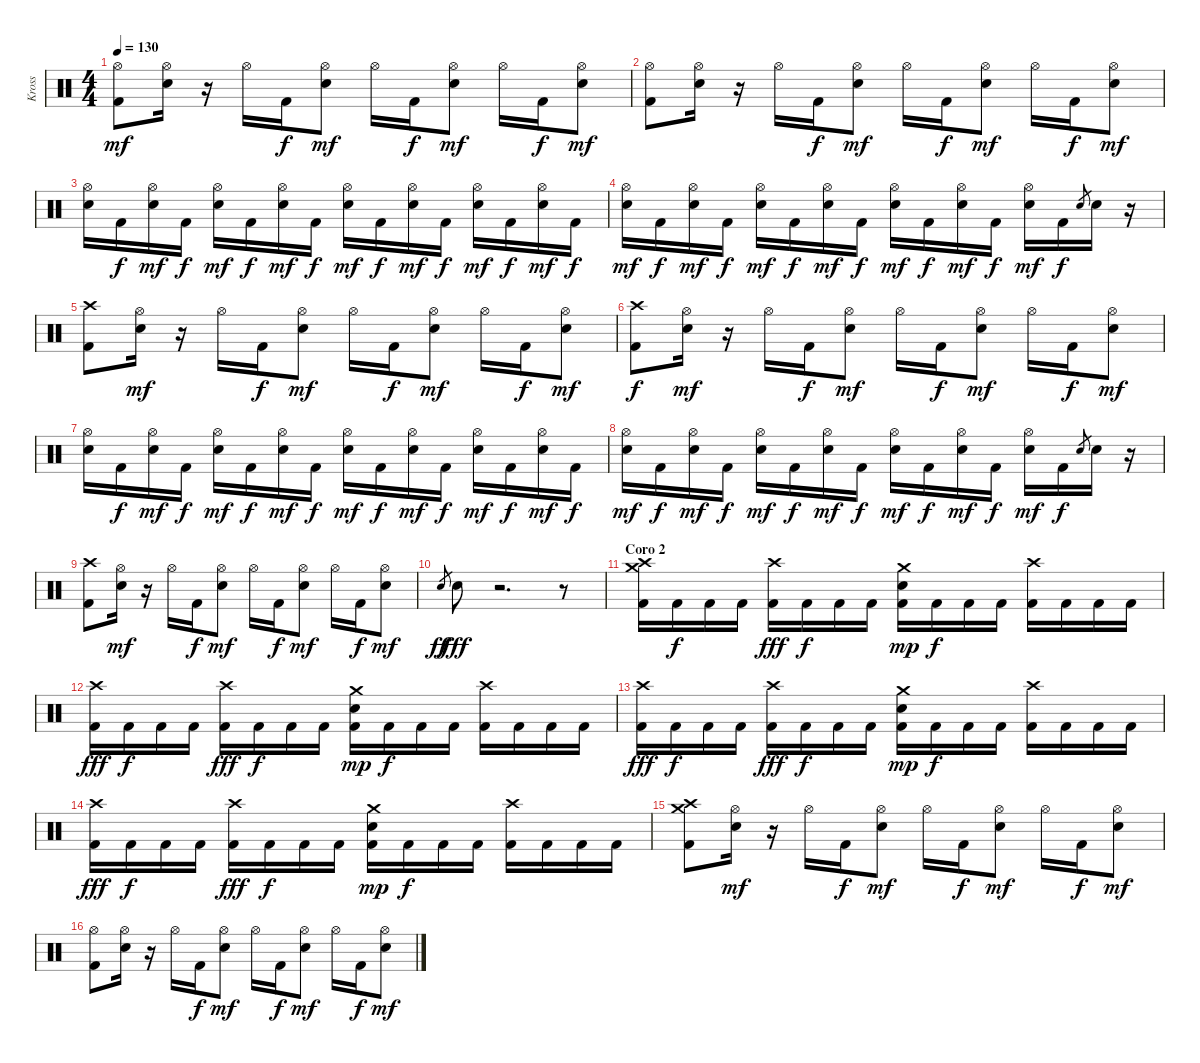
\track ("Kross" "Kross") {instrument percussion}
\staff {score}
\articulation defaults
\ts (4 4)
\tempo 130
\clef neutral
\ks c
("Hi-Hat (open)" "Kick (hit) 2").8{dy mf} ("Hi-Hat (open)" "Snare (hit) 2").16 r.16 "Hi-Hat (open)".16 "Kick (hit) 2".16{dy f} ("Hi-Hat (open)" "Snare (hit) 2").8{dy mf} "Hi-Hat (open)".16 "Kick (hit) 2".16{dy f} ("Hi-Hat (open)" "Snare (hit) 2").8{dy mf} "Hi-Hat (open)".16 "Kick (hit) 2".16{dy f} ("Hi-Hat (open)" "Snare (hit) 2").8{dy mf} |
("Hi-Hat (open)" "Kick (hit) 2").8 ("Hi-Hat (open)" "Snare (hit) 2").16 r.16 "Hi-Hat (open)".16 "Kick (hit) 2".16{dy f} ("Hi-Hat (open)" "Snare (hit) 2").8{dy mf} "Hi-Hat (open)".16 "Kick (hit) 2".16{dy f} ("Hi-Hat (open)" "Snare (hit) 2").8{dy mf} "Hi-Hat (open)".16 "Kick (hit) 2".16{dy f} ("Hi-Hat (open)" "Snare (hit) 2").8{dy mf} |
("Hi-Hat (open)" "Snare (hit) 2").16 "Kick (hit) 2".16{dy f} ("Hi-Hat (open)" "Snare (hit) 2").16{dy mf} "Kick (hit) 2".16{dy f} ("Hi-Hat (open)" "Snare (hit) 2").16{dy mf} "Kick (hit) 2".16{dy f} ("Hi-Hat (open)" "Snare (hit) 2").16{dy mf} "Kick (hit) 2".16{dy f} ("Hi-Hat (open)" "Snare (hit) 2").16{dy mf} "Kick (hit) 2".16{dy f} ("Hi-Hat (open)" "Snare (hit) 2").16{dy mf} "Kick (hit) 2".16{dy f} ("Hi-Hat (open)" "Snare (hit) 2").16{dy mf} "Kick (hit) 2".16{dy f} ("Hi-Hat (open)" "Snare (hit) 2").16{dy mf} "Kick (hit) 2".16{dy f} |
("Hi-Hat (open)" "Snare (hit) 2").16{dy mf} "Kick (hit) 2".16{dy f} ("Hi-Hat (open)" "Snare (hit) 2").16{dy mf} "Kick (hit) 2".16{dy f} ("Hi-Hat (open)" "Snare (hit) 2").16{dy mf} "Kick (hit) 2".16{dy f} ("Hi-Hat (open)" "Snare (hit) 2").16{dy mf} "Kick (hit) 2".16{dy f} ("Hi-Hat (open)" "Snare (hit) 2").16{dy mf} "Kick (hit) 2".16{dy f} ("Hi-Hat (open)" "Snare (hit) 2").16{dy mf} "Kick (hit) 2".16{dy f} ("Hi-Hat (open)" "Snare (hit) 2").16{dy mf} "Kick (hit) 2".16{dy f} "Snare (hit) 2".8{gr} "Snare (hit) 2".16 r.16 |
("Crash high (hit)" "Kick (hit) 2").8 ("Hi-Hat (open)" "Snare (hit) 2").16{dy mf} r.16 "Hi-Hat (open)".16 "Kick (hit) 2".16{dy f} ("Hi-Hat (open)" "Snare (hit) 2").8{dy mf} "Hi-Hat (open)".16 "Kick (hit) 2".16{dy f} ("Hi-Hat (open)" "Snare (hit) 2").8{dy mf} "Hi-Hat (open)".16 "Kick (hit) 2".16{dy f} ("Hi-Hat (open)" "Snare (hit) 2").8{dy mf} |
("Crash high (hit)" "Kick (hit) 2").8{dy f} ("Hi-Hat (open)" "Snare (hit) 2").16{dy mf} r.16 "Hi-Hat (open)".16 "Kick (hit) 2".16{dy f} ("Hi-Hat (open)" "Snare (hit) 2").8{dy mf} "Hi-Hat (open)".16 "Kick (hit) 2".16{dy f} ("Hi-Hat (open)" "Snare (hit) 2").8{dy mf} "Hi-Hat (open)".16 "Kick (hit) 2".16{dy f} ("Hi-Hat (open)" "Snare (hit) 2").8{dy mf} |
("Hi-Hat (open)" "Snare (hit) 2").16 "Kick (hit) 2".16{dy f} ("Hi-Hat (open)" "Snare (hit) 2").16{dy mf} "Kick (hit) 2".16{dy f} ("Hi-Hat (open)" "Snare (hit) 2").16{dy mf} "Kick (hit) 2".16{dy f} ("Hi-Hat (open)" "Snare (hit) 2").16{dy mf} "Kick (hit) 2".16{dy f} ("Hi-Hat (open)" "Snare (hit) 2").16{dy mf} "Kick (hit) 2".16{dy f} ("Hi-Hat (open)" "Snare (hit) 2").16{dy mf} "Kick (hit) 2".16{dy f} ("Hi-Hat (open)" "Snare (hit) 2").16{dy mf} "Kick (hit) 2".16{dy f} ("Hi-Hat (open)" "Snare (hit) 2").16{dy mf} "Kick (hit) 2".16{dy f} |
("Hi-Hat (open)" "Snare (hit) 2").16{dy mf} "Kick (hit) 2".16{dy f} ("Hi-Hat (open)" "Snare (hit) 2").16{dy mf} "Kick (hit) 2".16{dy f} ("Hi-Hat (open)" "Snare (hit) 2").16{dy mf} "Kick (hit) 2".16{dy f} ("Hi-Hat (open)" "Snare (hit) 2").16{dy mf} "Kick (hit) 2".16{dy f} ("Hi-Hat (open)" "Snare (hit) 2").16{dy mf} "Kick (hit) 2".16{dy f} ("Hi-Hat (open)" "Snare (hit) 2").16{dy mf} "Kick (hit) 2".16{dy f} ("Hi-Hat (open)" "Snare (hit) 2").16{dy mf} "Kick (hit) 2".16{dy f} "Snare (hit) 2".8{gr} "Snare (hit) 2".16 r.16 |
("Crash high (hit)" "Kick (hit) 2").8 ("Hi-Hat (open)" "Snare (hit) 2").16{dy mf} r.16 "Hi-Hat (open)".16 "Kick (hit) 2".16{dy f} ("Hi-Hat (open)" "Snare (hit) 2").8{dy mf} "Hi-Hat (open)".16 "Kick (hit) 2".16{dy f} ("Hi-Hat (open)" "Snare (hit) 2").8{dy mf} "Hi-Hat (open)".16 "Kick (hit) 2".16{dy f} ("Hi-Hat (open)" "Snare (hit) 2").8{dy mf} |
"Snare (hit) 2".8{gr dy ff} "Snare (hit) 2".8{dy fff} r.2{d} r.8 |
\section ("" "Coro 2")
("Crash high (hit)" "Crash medium (hit)" "Kick (hit) 2").16 "Kick (hit) 2".16{dy f} "Kick (hit) 2".16 "Kick (hit) 2".16 ("Crash high (hit)" "Kick (hit) 2").16{dy fff} "Kick (hit) 2".16{dy f} "Kick (hit) 2".16 "Kick (hit) 2".16 ("Crash medium (hit)" "Snare (hit) 2" "Kick (hit) 2").16{dy mp} "Kick (hit) 2".16{dy f} "Kick (hit) 2".16 "Kick (hit) 2".16 ("Crash high (hit)" "Kick (hit) 2").16 "Kick (hit) 2".16 "Kick (hit) 2".16 "Kick (hit) 2".16 |
("Crash high (hit)" "Kick (hit) 2").16{dy fff} "Kick (hit) 2".16{dy f} "Kick (hit) 2".16 "Kick (hit) 2".16 ("Crash high (hit)" "Kick (hit) 2").16{dy fff} "Kick (hit) 2".16{dy f} "Kick (hit) 2".16 "Kick (hit) 2".16 ("Crash medium (hit)" "Snare (hit) 2" "Kick (hit) 2").16{dy mp} "Kick (hit) 2".16{dy f} "Kick (hit) 2".16 "Kick (hit) 2".16 ("Crash high (hit)" "Kick (hit) 2").16 "Kick (hit) 2".16 "Kick (hit) 2".16 "Kick (hit) 2".16 |
("Crash high (hit)" "Kick (hit) 2").16{dy fff} "Kick (hit) 2".16{dy f} "Kick (hit) 2".16 "Kick (hit) 2".16 ("Crash high (hit)" "Kick (hit) 2").16{dy fff} "Kick (hit) 2".16{dy f} "Kick (hit) 2".16 "Kick (hit) 2".16 ("Crash medium (hit)" "Snare (hit) 2" "Kick (hit) 2").16{dy mp} "Kick (hit) 2".16{dy f} "Kick (hit) 2".16 "Kick (hit) 2".16 ("Crash high (hit)" "Kick (hit) 2").16 "Kick (hit) 2".16 "Kick (hit) 2".16 "Kick (hit) 2".16 |
("Crash high (hit)" "Kick (hit) 2").16{dy fff} "Kick (hit) 2".16{dy f} "Kick (hit) 2".16 "Kick (hit) 2".16 ("Crash high (hit)" "Kick (hit) 2").16{dy fff} "Kick (hit) 2".16{dy f} "Kick (hit) 2".16 "Kick (hit) 2".16 ("Crash medium (hit)" "Snare (hit) 2" "Kick (hit) 2").16{dy mp} "Kick (hit) 2".16{dy f} "Kick (hit) 2".16 "Kick (hit) 2".16 ("Crash high (hit)" "Kick (hit) 2").16 "Kick (hit) 2".16 "Kick (hit) 2".16 "Kick (hit) 2".16 |
("Crash high (hit)" "Crash medium (hit)" "Kick (hit) 2").8 ("Hi-Hat (open)" "Snare (hit) 2").16{dy mf} r.16 "Hi-Hat (open)".16 "Kick (hit) 2".16{dy f} ("Hi-Hat (open)" "Snare (hit) 2").8{dy mf} "Hi-Hat (open)".16 "Kick (hit) 2".16{dy f} ("Hi-Hat (open)" "Snare (hit) 2").8{dy mf} "Hi-Hat (open)".16 "Kick (hit) 2".16{dy f} ("Hi-Hat (open)" "Snare (hit) 2").8{dy mf} |
("Hi-Hat (open)" "Kick (hit) 2").8 ("Hi-Hat (open)" "Snare (hit) 2").16 r.16 "Hi-Hat (open)".16 "Kick (hit) 2".16{dy f} ("Hi-Hat (open)" "Snare (hit) 2").8{dy mf} "Hi-Hat (open)".16 "Kick (hit) 2".16{dy f} ("Hi-Hat (open)" "Snare (hit) 2").8{dy mf} "Hi-Hat (open)".16 "Kick (hit) 2".16{dy f} ("Hi-Hat (open)" "Snare (hit) 2").8{dy mf}
